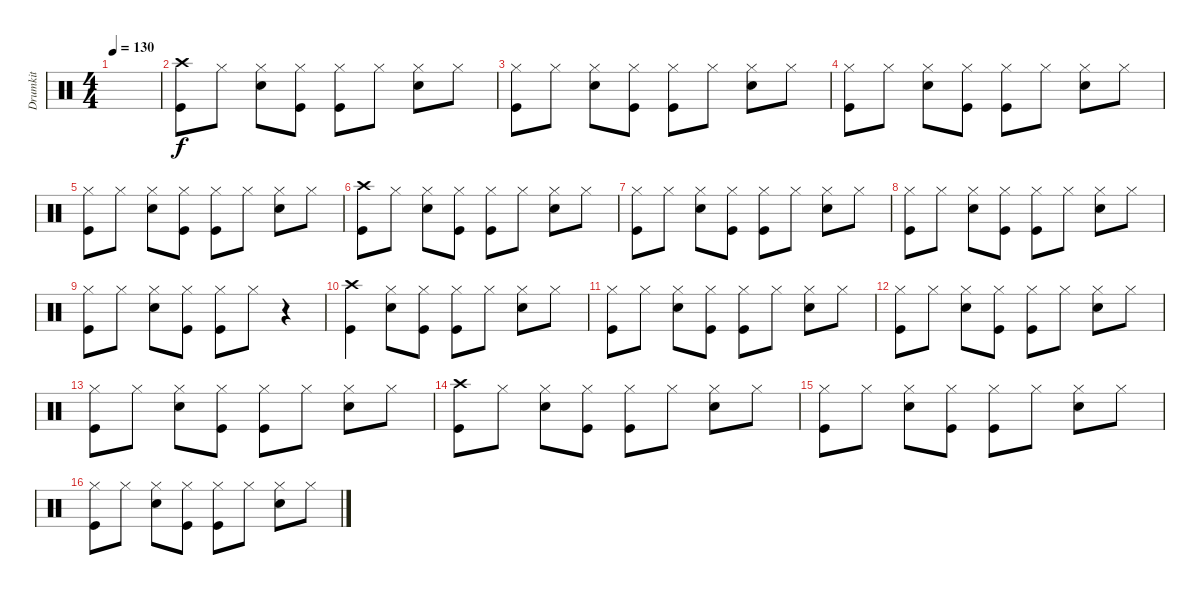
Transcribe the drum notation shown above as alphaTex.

\track ("Drumkit" "Drumkit") {instrument percussion}
\staff {score}
\articulation defaults
\ts (4 4)
\tempo 130
\clef neutral
\ks c
|
("Kick (hit)" "Crash high (hit)").8 "Hi-Hat (closed)".8 ("Snare (hit) 2" "Hi-Hat (closed)").8 ("Kick (hit)" "Hi-Hat (closed)").8 ("Kick (hit)" "Hi-Hat (closed)").8 "Hi-Hat (closed)".8 ("Snare (hit) 2" "Hi-Hat (closed)").8 "Hi-Hat (closed)".8 |
("Kick (hit)" "Hi-Hat (closed)").8 "Hi-Hat (closed)".8 ("Snare (hit) 2" "Hi-Hat (closed)").8 ("Kick (hit)" "Hi-Hat (closed)").8 ("Kick (hit)" "Hi-Hat (closed)").8 "Hi-Hat (closed)".8 ("Snare (hit) 2" "Hi-Hat (closed)").8 "Hi-Hat (closed)".8 |
("Kick (hit)" "Hi-Hat (closed)").8 "Hi-Hat (closed)".8 ("Snare (hit) 2" "Hi-Hat (closed)").8 ("Kick (hit)" "Hi-Hat (closed)").8 ("Kick (hit)" "Hi-Hat (closed)").8 "Hi-Hat (closed)".8 ("Snare (hit) 2" "Hi-Hat (closed)").8 "Hi-Hat (closed)".8 |
("Kick (hit)" "Hi-Hat (closed)").8 "Hi-Hat (closed)".8 ("Snare (hit) 2" "Hi-Hat (closed)").8 ("Kick (hit)" "Hi-Hat (closed)").8 ("Kick (hit)" "Hi-Hat (closed)").8 "Hi-Hat (closed)".8 ("Snare (hit) 2" "Hi-Hat (closed)").8 "Hi-Hat (closed)".8 |
("Kick (hit)" "Crash high (hit)").8 "Hi-Hat (closed)".8 ("Snare (hit) 2" "Hi-Hat (closed)").8 ("Kick (hit)" "Hi-Hat (closed)").8 ("Kick (hit)" "Hi-Hat (closed)").8 "Hi-Hat (closed)".8 ("Snare (hit) 2" "Hi-Hat (closed)").8 "Hi-Hat (closed)".8 |
("Kick (hit)" "Hi-Hat (closed)").8 "Hi-Hat (closed)".8 ("Snare (hit) 2" "Hi-Hat (closed)").8 ("Kick (hit)" "Hi-Hat (closed)").8 ("Kick (hit)" "Hi-Hat (closed)").8 "Hi-Hat (closed)".8 ("Snare (hit) 2" "Hi-Hat (closed)").8 "Hi-Hat (closed)".8 |
("Kick (hit)" "Hi-Hat (closed)").8 "Hi-Hat (closed)".8 ("Snare (hit) 2" "Hi-Hat (closed)").8 ("Kick (hit)" "Hi-Hat (closed)").8 ("Kick (hit)" "Hi-Hat (closed)").8 "Hi-Hat (closed)".8 ("Snare (hit) 2" "Hi-Hat (closed)").8 "Hi-Hat (closed)".8 |
("Kick (hit)" "Hi-Hat (closed)").8 "Hi-Hat (closed)".8 ("Snare (hit) 2" "Hi-Hat (closed)").8 ("Kick (hit)" "Hi-Hat (closed)").8 ("Kick (hit)" "Hi-Hat (closed)").8 "Hi-Hat (closed)".8 r.4 |
("Crash high (hit)" "Kick (hit)").4 ("Snare (hit) 2" "Hi-Hat (closed)").8 ("Kick (hit)" "Hi-Hat (closed)").8 ("Kick (hit)" "Hi-Hat (closed)").8 "Hi-Hat (closed)".8 ("Snare (hit) 2" "Hi-Hat (closed)").8 "Hi-Hat (closed)".8 |
("Kick (hit)" "Hi-Hat (closed)").8 "Hi-Hat (closed)".8 ("Snare (hit) 2" "Hi-Hat (closed)").8 ("Kick (hit)" "Hi-Hat (closed)").8 ("Kick (hit)" "Hi-Hat (closed)").8 "Hi-Hat (closed)".8 ("Snare (hit) 2" "Hi-Hat (closed)").8 "Hi-Hat (closed)".8 |
("Kick (hit)" "Hi-Hat (closed)").8 "Hi-Hat (closed)".8 ("Snare (hit) 2" "Hi-Hat (closed)").8 ("Kick (hit)" "Hi-Hat (closed)").8 ("Kick (hit)" "Hi-Hat (closed)").8 "Hi-Hat (closed)".8 ("Snare (hit) 2" "Hi-Hat (closed)").8 "Hi-Hat (closed)".8 |
("Kick (hit)" "Hi-Hat (closed)").8 "Hi-Hat (closed)".8 ("Snare (hit) 2" "Hi-Hat (closed)").8 ("Kick (hit)" "Hi-Hat (closed)").8 ("Kick (hit)" "Hi-Hat (closed)").8 "Hi-Hat (closed)".8 ("Snare (hit) 2" "Hi-Hat (closed)").8 "Hi-Hat (closed)".8 |
("Kick (hit)" "Crash high (hit)").8 "Hi-Hat (closed)".8 ("Snare (hit) 2" "Hi-Hat (closed)").8 ("Kick (hit)" "Hi-Hat (closed)").8 ("Kick (hit)" "Hi-Hat (closed)").8 "Hi-Hat (closed)".8 ("Snare (hit) 2" "Hi-Hat (closed)").8 "Hi-Hat (closed)".8 |
("Kick (hit)" "Hi-Hat (closed)").8 "Hi-Hat (closed)".8 ("Snare (hit) 2" "Hi-Hat (closed)").8 ("Kick (hit)" "Hi-Hat (closed)").8 ("Kick (hit)" "Hi-Hat (closed)").8 "Hi-Hat (closed)".8 ("Snare (hit) 2" "Hi-Hat (closed)").8 "Hi-Hat (closed)".8 |
("Kick (hit)" "Hi-Hat (closed)").8 "Hi-Hat (closed)".8 ("Snare (hit) 2" "Hi-Hat (closed)").8 ("Kick (hit)" "Hi-Hat (closed)").8 ("Kick (hit)" "Hi-Hat (closed)").8 "Hi-Hat (closed)".8 ("Snare (hit) 2" "Hi-Hat (closed)").8 "Hi-Hat (closed)".8
